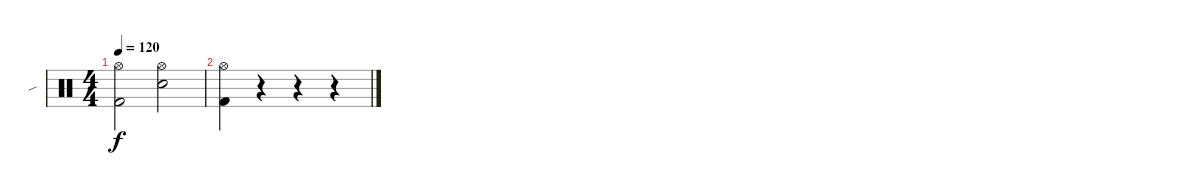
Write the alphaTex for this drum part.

\track ("\\" "\\") {instrument percussion}
\staff {score}
\articulation defaults
\ts (4 4)
\tempo 120
\clef neutral
\ks c
("Hi-Hat (open)" "Kick (hit) 2").2{dy f} ("Hi-Hat (open)" "Electric Snare (hit)").2 |
("Hi-Hat (open)" "Kick (hit) 2").4 r.4 r.4 r.4
